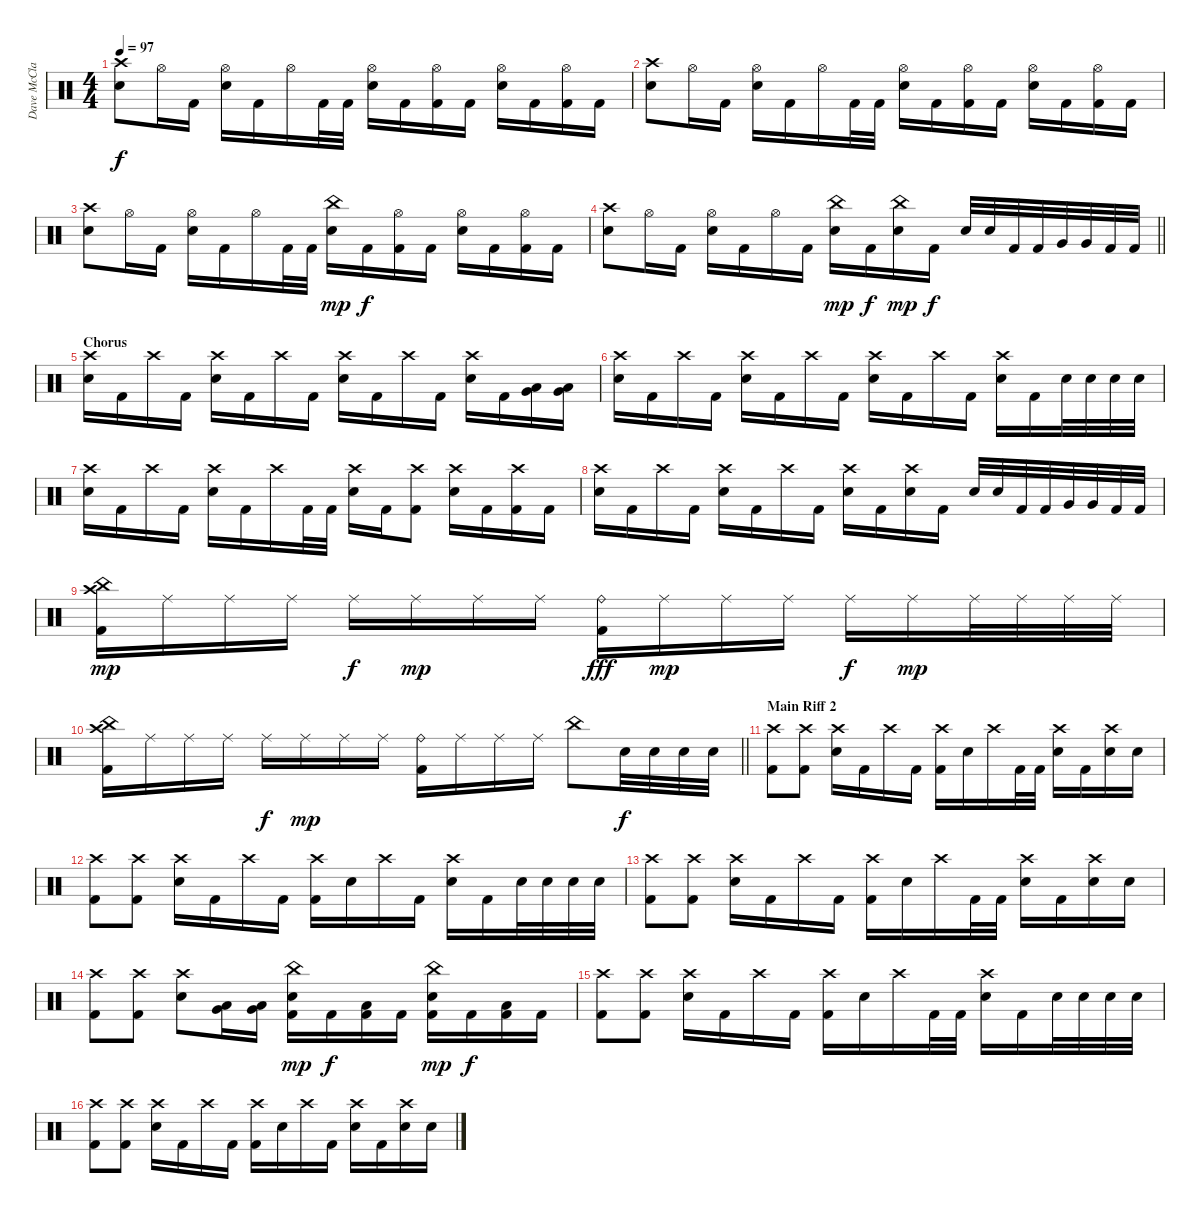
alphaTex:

\track ("Dave McClain" "Dave McCla") {instrument percussion}
\staff {score}
\articulation defaults
\ts (4 4)
\tempo 97
\clef neutral
\ks c
("Crash high (hit)" "Snare (hit) 2").8{dy f} "Hi-Hat (open)".16 "Kick (hit) 2".16 ("Hi-Hat (open)" "Snare (hit) 2").16 "Kick (hit) 2".16 "Hi-Hat (open)".16 "Kick (hit) 2".32 "Kick (hit) 2".32 ("Hi-Hat (open)" "Snare (hit) 2").16 "Kick (hit) 2".16 ("Hi-Hat (open)" "Kick (hit) 2").16 "Kick (hit) 2".16 ("Hi-Hat (open)" "Snare (hit) 2").16 "Kick (hit) 2".16 ("Hi-Hat (open)" "Kick (hit) 2").16 "Kick (hit) 2".16 |
("Crash high (hit)" "Snare (hit) 2").8 "Hi-Hat (open)".16 "Kick (hit) 2".16 ("Hi-Hat (open)" "Snare (hit) 2").16 "Kick (hit) 2".16 "Hi-Hat (open)".16 "Kick (hit) 2".32 "Kick (hit) 2".32 ("Hi-Hat (open)" "Snare (hit) 2").16 "Kick (hit) 2".16 ("Hi-Hat (open)" "Kick (hit) 2").16 "Kick (hit) 2".16 ("Hi-Hat (open)" "Snare (hit) 2").16 "Kick (hit) 2".16 ("Hi-Hat (open)" "Kick (hit) 2").16 "Kick (hit) 2".16 |
("Crash high (hit)" "Snare (hit) 2").8 "Hi-Hat (open)".16 "Kick (hit) 2".16 ("Hi-Hat (open)" "Snare (hit) 2").16 "Kick (hit) 2".16 "Hi-Hat (open)".16 "Kick (hit) 2".32 "Kick (hit) 2".32 ("China (hit)" "Snare (hit) 2").16{dy mp} "Kick (hit) 2".16{dy f} ("Hi-Hat (open)" "Kick (hit) 2").16 "Kick (hit) 2".16 ("Hi-Hat (open)" "Snare (hit) 2").16 "Kick (hit) 2".16 ("Hi-Hat (open)" "Kick (hit) 2").16 "Kick (hit) 2".16 |
\barLineRight lightlight
("Crash high (hit)" "Snare (hit) 2").8 "Hi-Hat (open)".16 "Kick (hit) 2".16 ("Hi-Hat (open)" "Snare (hit) 2").16 "Kick (hit) 2".16 "Hi-Hat (open)".16 "Kick (hit) 2".16 ("China (hit)" "Snare (hit) 2").16{dy mp} "Kick (hit) 2".16{dy f} ("China (hit)" "Snare (hit) 2").16{dy mp} "Kick (hit) 2".16{dy f} "Snare (hit) 2".32 "Snare (hit) 2".32 "Kick (hit) 2".32 "Kick (hit) 2".32 "Very Low Tom (hit)".32 "Very Low Tom (hit)".32 "Kick (hit) 2".32 "Kick (hit) 2".32 |
\section ("" "Chorus")
("Crash high (hit)" "Snare (hit) 2").16 "Kick (hit) 2".16 "Crash high (hit)".16 "Kick (hit) 2".16 ("Crash high (hit)" "Snare (hit) 2").16 "Kick (hit) 2".16 "Crash high (hit)".16 "Kick (hit) 2".16 ("Crash high (hit)" "Snare (hit) 2").16 "Kick (hit) 2".16 "Crash high (hit)".16 "Kick (hit) 2".16 ("Crash high (hit)" "Snare (hit) 2").16 "Kick (hit) 2".16 ("Very Low Tom (hit)" "Low Floor Tom (hit)").16 ("Very Low Tom (hit)" "Low Floor Tom (hit)").16 |
("Crash high (hit)" "Snare (hit) 2").16 "Kick (hit) 2".16 "Crash high (hit)".16 "Kick (hit) 2".16 ("Crash high (hit)" "Snare (hit) 2").16 "Kick (hit) 2".16 "Crash high (hit)".16 "Kick (hit) 2".16 ("Crash high (hit)" "Snare (hit) 2").16 "Kick (hit) 2".16 "Crash high (hit)".16 "Kick (hit) 2".16 ("Crash high (hit)" "Snare (hit) 2").16 "Kick (hit) 2".16 "Snare (hit) 2".32 "Snare (hit) 2".32 "Snare (hit) 2".32 "Snare (hit) 2".32 |
("Crash high (hit)" "Snare (hit) 2").16 "Kick (hit) 2".16 "Crash high (hit)".16 "Kick (hit) 2".16 ("Crash high (hit)" "Snare (hit) 2").16 "Kick (hit) 2".16 "Crash high (hit)".16 "Kick (hit) 2".32 "Kick (hit) 2".32 ("Crash high (hit)" "Snare (hit) 2").16 "Kick (hit) 2".16 ("Crash high (hit)" "Kick (hit) 2").8 ("Crash high (hit)" "Snare (hit) 2").16 "Kick (hit) 2".16 ("Crash high (hit)" "Kick (hit) 2").16 "Kick (hit) 2".16 |
("Crash high (hit)" "Snare (hit) 2").16 "Kick (hit) 2".16 "Crash high (hit)".16 "Kick (hit) 2".16 ("Crash high (hit)" "Snare (hit) 2").16 "Kick (hit) 2".16 "Crash high (hit)".16 "Kick (hit) 2".16 ("Crash high (hit)" "Snare (hit) 2").16 "Kick (hit) 2".16 ("Crash high (hit)" "Snare (hit) 2").16 "Kick (hit) 2".16 "Snare (hit) 2".32 "Snare (hit) 2".32 "Kick (hit) 2".32 "Kick (hit) 2".32 "Very Low Tom (hit)".32 "Very Low Tom (hit)".32 "Kick (hit) 2".32 "Kick (hit) 2".32 |
("China (hit)" "Crash high (hit)" "Kick (hit) 2").16{dy mp} "Ride (middle)".16 "Ride (middle)".16 "Ride (middle)".16 "Ride (middle)".16{dy f} "Ride (middle)".16{dy mp} "Ride (middle)".16 "Ride (middle)".16 ("Ride (bell)" "Kick (hit) 2").16{dy fff} "Ride (middle)".16{dy mp} "Ride (middle)".16 "Ride (middle)".16 "Ride (middle)".16{dy f} "Ride (middle)".16{dy mp} "Ride (middle)".32 "Ride (middle)".32 "Ride (middle)".32 "Ride (middle)".32 |
\barLineRight lightlight
("China (hit)" "Crash high (hit)" "Kick (hit) 2").16 "Ride (middle)".16 "Ride (middle)".16 "Ride (middle)".16 "Ride (middle)".16{dy f} "Ride (middle)".16{dy mp} "Ride (middle)".16 "Ride (middle)".16 ("Ride (bell)" "Kick (hit) 2").16 "Ride (middle)".16 "Ride (middle)".16 "Ride (middle)".16 "China (hit)".8 "Snare (hit) 2".32{dy f} "Snare (hit) 2".32 "Snare (hit) 2".32 "Snare (hit) 2".32 |
\section ("" "Main Riff 2")
("Crash high (hit)" "Kick (hit) 2").8 ("Crash high (hit)" "Kick (hit) 2").8 ("Crash high (hit)" "Snare (hit) 2").16 "Kick (hit) 2".16 "Crash high (hit)".16 "Kick (hit) 2".16 ("Crash high (hit)" "Kick (hit) 2").16 "Snare (hit) 2".16 "Crash high (hit)".16 "Kick (hit) 2".32 "Kick (hit) 2".32 ("Crash high (hit)" "Snare (hit) 2").16 "Kick (hit) 2".16 ("Crash high (hit)" "Snare (hit) 2").16 "Snare (hit) 2".16 |
("Crash high (hit)" "Kick (hit) 2").8 ("Crash high (hit)" "Kick (hit) 2").8 ("Crash high (hit)" "Snare (hit) 2").16 "Kick (hit) 2".16 "Crash high (hit)".16 "Kick (hit) 2".16 ("Crash high (hit)" "Kick (hit) 2").16 "Snare (hit) 2".16 "Crash high (hit)".16 "Kick (hit) 2".16 ("Crash high (hit)" "Snare (hit) 2").16 "Kick (hit) 2".16 "Snare (hit) 2".32 "Snare (hit) 2".32 "Snare (hit) 2".32 "Snare (hit) 2".32 |
("Crash high (hit)" "Kick (hit) 2").8 ("Crash high (hit)" "Kick (hit) 2").8 ("Crash high (hit)" "Snare (hit) 2").16 "Kick (hit) 2".16 "Crash high (hit)".16 "Kick (hit) 2".16 ("Crash high (hit)" "Kick (hit) 2").16 "Snare (hit) 2".16 "Crash high (hit)".16 "Kick (hit) 2".32 "Kick (hit) 2".32 ("Crash high (hit)" "Snare (hit) 2").16 "Kick (hit) 2".16 ("Crash high (hit)" "Snare (hit) 2").16 "Snare (hit) 2".16 |
("Crash high (hit)" "Kick (hit) 2").8 ("Crash high (hit)" "Kick (hit) 2").8 ("Crash high (hit)" "Snare (hit) 2").8 ("Very Low Tom (hit)" "Low Floor Tom (hit)").16 ("Very Low Tom (hit)" "Low Floor Tom (hit)").16 ("China (hit)" "Snare (hit) 2" "Kick (hit) 2").16{dy mp} "Kick (hit) 2".16{dy f} ("Low Floor Tom (hit)" "Kick (hit) 2").16 "Kick (hit) 2".16 ("China (hit)" "Snare (hit) 2" "Kick (hit) 2").16{dy mp} "Kick (hit) 2".16{dy f} ("Low Floor Tom (hit)" "Kick (hit) 2").16 "Kick (hit) 2".16 |
("Crash high (hit)" "Kick (hit) 2").8 ("Crash high (hit)" "Kick (hit) 2").8 ("Crash high (hit)" "Snare (hit) 2").16 "Kick (hit) 2".16 "Crash high (hit)".16 "Kick (hit) 2".16 ("Crash high (hit)" "Kick (hit) 2").16 "Snare (hit) 2".16 "Crash high (hit)".16 "Kick (hit) 2".32 "Kick (hit) 2".32 ("Crash high (hit)" "Snare (hit) 2").16 "Kick (hit) 2".16 "Snare (hit) 2".32 "Snare (hit) 2".32 "Snare (hit) 2".32 "Snare (hit) 2".32 |
("Crash high (hit)" "Kick (hit) 2").8 ("Crash high (hit)" "Kick (hit) 2").8 ("Crash high (hit)" "Snare (hit) 2").16 "Kick (hit) 2".16 "Crash high (hit)".16 "Kick (hit) 2".16 ("Crash high (hit)" "Kick (hit) 2").16 "Snare (hit) 2".16 "Crash high (hit)".16 "Kick (hit) 2".16 ("Crash high (hit)" "Snare (hit) 2").16 "Kick (hit) 2".16 ("Crash high (hit)" "Snare (hit) 2").16 "Snare (hit) 2".16
